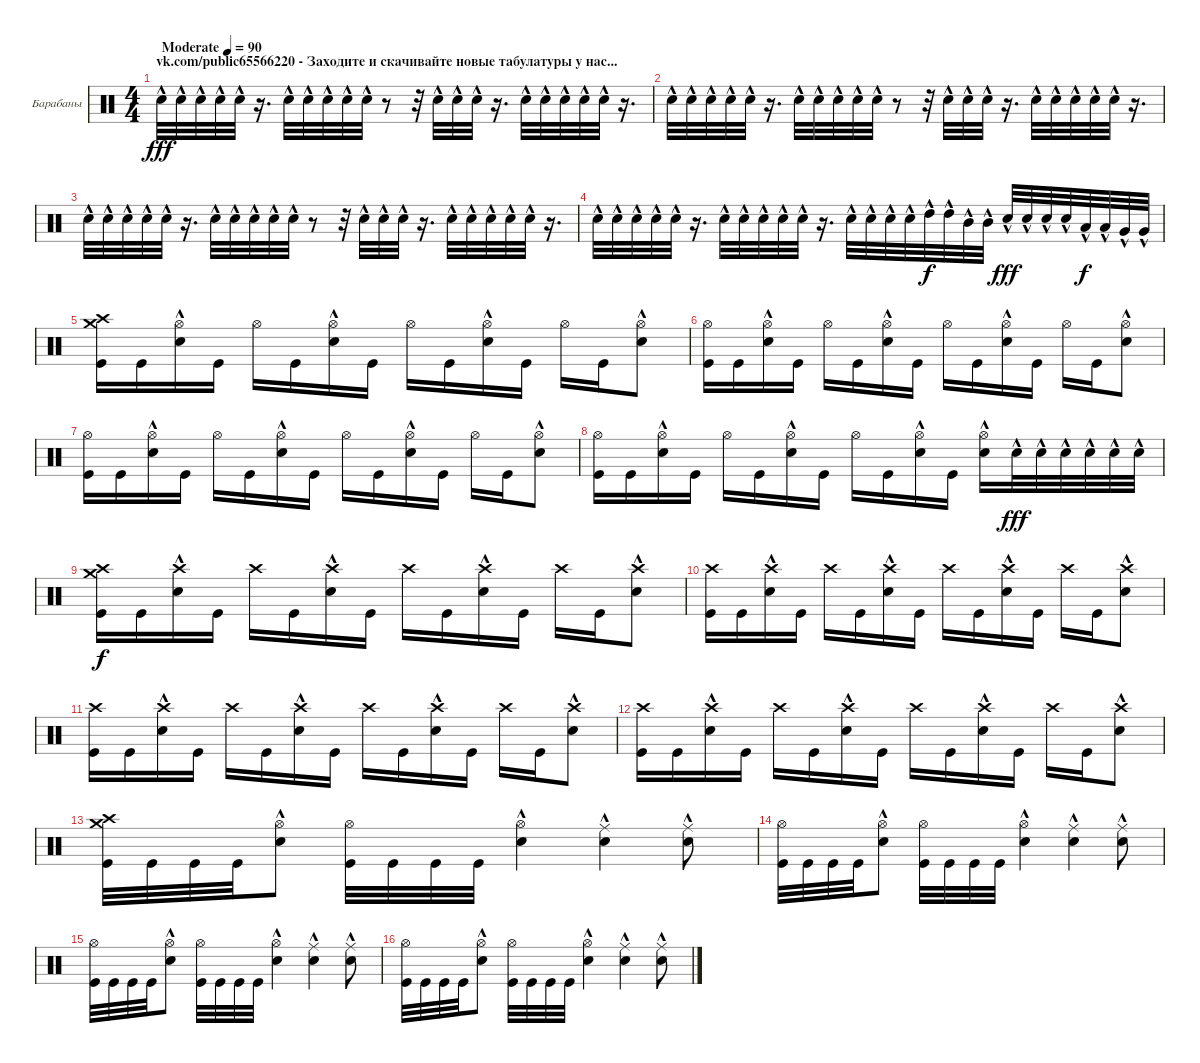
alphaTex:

\bracketExtendMode groupsimilarinstruments
\firstSystemTrackNameOrientation horizontal
\otherSystemsTrackNameOrientation horizontal
\track ("Ударные" "Барабаны") {instrument percussion}
\staff {score}
\articulation defaults
\ts (4 4)
\beaming (8 2 2 2 2)
\section ("" "vk.com/public65566220 - Заходите и скачивайте новые табулатуры у нас...")
\tempo (90 "Moderate")
\clef neutral
\ks c "Snare (hit) 2"{hac}.32{dy fff} "Snare (hit) 2"{hac}.32 "Snare (hit) 2"{hac}.32 "Snare (hit) 2"{hac}.32 "Snare (hit) 2"{hac}.32
r.16{d} "Snare (hit) 2"{hac}.32 "Snare (hit) 2"{hac}.32 "Snare (hit) 2"{hac}.32 "Snare (hit) 2"{hac}.32 "Snare (hit) 2"{hac}.32 r.8 r.32 "Snare (hit) 2"{hac}.32 "Snare (hit) 2"{hac}.32 "Snare (hit) 2"{hac}.32 r.16{d} "Snare (hit) 2"{hac}.32 "Snare (hit) 2"{hac}.32 "Snare (hit) 2"{hac}.32 "Snare (hit) 2"{hac}.32 "Snare (hit) 2"{hac}.32 r.16{d} |
"Snare (hit) 2"{hac}.32 "Snare (hit) 2"{hac}.32 "Snare (hit) 2"{hac}.32 "Snare (hit) 2"{hac}.32 "Snare (hit) 2"{hac}.32 r.16{d} "Snare (hit) 2"{hac}.32 "Snare (hit) 2"{hac}.32 "Snare (hit) 2"{hac}.32 "Snare (hit) 2"{hac}.32 "Snare (hit) 2"{hac}.32 r.8 r.32 "Snare (hit) 2"{hac}.32 "Snare (hit) 2"{hac}.32 "Snare (hit) 2"{hac}.32 r.16{d} "Snare (hit) 2"{hac}.32 "Snare (hit) 2"{hac}.32 "Snare (hit) 2"{hac}.32 "Snare (hit) 2"{hac}.32 "Snare (hit) 2"{hac}.32 r.16{d} |
"Snare (hit) 2"{hac}.32 "Snare (hit) 2"{hac}.32 "Snare (hit) 2"{hac}.32 "Snare (hit) 2"{hac}.32 "Snare (hit) 2"{hac}.32 r.16{d} "Snare (hit) 2"{hac}.32 "Snare (hit) 2"{hac}.32 "Snare (hit) 2"{hac}.32 "Snare (hit) 2"{hac}.32 "Snare (hit) 2"{hac}.32 r.8 r.32 "Snare (hit) 2"{hac}.32 "Snare (hit) 2"{hac}.32 "Snare (hit) 2"{hac}.32 r.16{d} "Snare (hit) 2"{hac}.32 "Snare (hit) 2"{hac}.32 "Snare (hit) 2"{hac}.32 "Snare (hit) 2"{hac}.32 "Snare (hit) 2"{hac}.32 r.16{d} |
"Snare (hit) 2"{hac}.32 "Snare (hit) 2"{hac}.32 "Snare (hit) 2"{hac}.32 "Snare (hit) 2"{hac}.32 "Snare (hit) 2"{hac}.32 r.16{d} "Snare (hit) 2"{hac}.32 "Snare (hit) 2"{hac}.32 "Snare (hit) 2"{hac}.32 "Snare (hit) 2"{hac}.32 "Snare (hit) 2"{hac}.32 r.16{d} "Snare (hit) 2"{hac}.32 "Snare (hit) 2"{hac}.32 "Snare (hit) 2"{hac}.32 "Snare (hit) 2"{hac}.32 "High Tom (hit)"{hac}.32{dy f} "High Tom (hit)"{hac}.32 "Mid Tom (hit)"{hac}.32 "Mid Tom (hit)"{hac}.32 "Snare (hit) 2"{hac}.32{dy fff} "Snare (hit) 2"{hac}.32 "Snare (hit) 2"{hac}.32 "Snare (hit) 2"{hac}.32 "Low Tom (hit)"{hac}.32{dy f} "Low Tom (hit)"{hac}.32 "Very Low Tom (hit)"{hac}.32 "Very Low Tom (hit)"{hac}.32 |
("Crash medium (hit)" "Kick (hit)" "Crash high (hit)").16 "Kick (hit)".16 ("Hi-Hat (open)" "Snare (hit) 2"{hac}).16 "Kick (hit)".16 "Hi-Hat (open)".16 "Kick (hit)".16 ("Hi-Hat (open)" "Snare (hit) 2"{hac}).16 "Kick (hit)".16 "Hi-Hat (open)".16 "Kick (hit)".16 ("Hi-Hat (open)" "Snare (hit) 2"{hac}).16 "Kick (hit)".16 "Hi-Hat (open)".16 "Kick (hit)".16 ("Hi-Hat (open)" "Snare (hit) 2"{hac}).8 |
("Hi-Hat (open)" "Kick (hit)").16 "Kick (hit)".16 ("Hi-Hat (open)" "Snare (hit) 2"{hac}).16 "Kick (hit)".16 "Hi-Hat (open)".16 "Kick (hit)".16 ("Hi-Hat (open)" "Snare (hit) 2"{hac}).16 "Kick (hit)".16 "Hi-Hat (open)".16 "Kick (hit)".16 ("Hi-Hat (open)" "Snare (hit) 2"{hac}).16 "Kick (hit)".16 "Hi-Hat (open)".16 "Kick (hit)".16 ("Hi-Hat (open)" "Snare (hit) 2"{hac}).8 |
("Hi-Hat (open)" "Kick (hit)").16 "Kick (hit)".16 ("Hi-Hat (open)" "Snare (hit) 2"{hac}).16 "Kick (hit)".16 "Hi-Hat (open)".16 "Kick (hit)".16 ("Hi-Hat (open)" "Snare (hit) 2"{hac}).16 "Kick (hit)".16 "Hi-Hat (open)".16 "Kick (hit)".16 ("Hi-Hat (open)" "Snare (hit) 2"{hac}).16 "Kick (hit)".16 "Hi-Hat (open)".16 "Kick (hit)".16 ("Hi-Hat (open)" "Snare (hit) 2"{hac}).8 |
("Hi-Hat (open)" "Kick (hit)").16 "Kick (hit)".16 ("Hi-Hat (open)" "Snare (hit) 2"{hac}).16 "Kick (hit)".16 "Hi-Hat (open)".16 "Kick (hit)".16 ("Hi-Hat (open)" "Snare (hit) 2"{hac}).16 "Kick (hit)".16 "Hi-Hat (open)".16 "Kick (hit)".16 ("Hi-Hat (open)" "Snare (hit) 2"{hac}).16 "Kick (hit)".16 ("Hi-Hat (open)" "Snare (hit) 2"{hac}).16 "Snare (hit) 2"{hac}.32{dy fff} "Snare (hit) 2"{hac}.32 "Snare (hit) 2"{hac}.32 "Snare (hit) 2"{hac}.32 "Snare (hit) 2"{hac}.32 "Snare (hit) 2"{hac}.32 |
("Crash medium (hit)" "Kick (hit)" "Crash high (hit)").16{dy f} "Kick (hit)".16 ("Crash high (hit)" "Snare (hit) 2"{hac}).16 "Kick (hit)".16 "Crash high (hit)".16 "Kick (hit)".16 ("Crash high (hit)" "Snare (hit) 2"{hac}).16 "Kick (hit)".16 "Crash high (hit)".16 "Kick (hit)".16 ("Crash high (hit)" "Snare (hit) 2"{hac}).16 "Kick (hit)".16 "Crash high (hit)".16 "Kick (hit)".16 ("Crash high (hit)" "Snare (hit) 2"{hac}).8 |
("Crash high (hit)" "Kick (hit)").16 "Kick (hit)".16 ("Crash high (hit)" "Snare (hit) 2"{hac}).16 "Kick (hit)".16 "Crash high (hit)".16 "Kick (hit)".16 ("Crash high (hit)" "Snare (hit) 2"{hac}).16 "Kick (hit)".16 "Crash high (hit)".16 "Kick (hit)".16 ("Crash high (hit)" "Snare (hit) 2"{hac}).16 "Kick (hit)".16 "Crash high (hit)".16 "Kick (hit)".16 ("Crash high (hit)" "Snare (hit) 2"{hac}).8 |
("Crash high (hit)" "Kick (hit)").16 "Kick (hit)".16 ("Crash high (hit)" "Snare (hit) 2"{hac}).16 "Kick (hit)".16 "Crash high (hit)".16 "Kick (hit)".16 ("Crash high (hit)" "Snare (hit) 2"{hac}).16 "Kick (hit)".16 "Crash high (hit)".16 "Kick (hit)".16 ("Crash high (hit)" "Snare (hit) 2"{hac}).16 "Kick (hit)".16 "Crash high (hit)".16 "Kick (hit)".16 ("Crash high (hit)" "Snare (hit) 2"{hac}).8 |
("Crash high (hit)" "Kick (hit)").16 "Kick (hit)".16 ("Crash high (hit)" "Snare (hit) 2"{hac}).16 "Kick (hit)".16 "Crash high (hit)".16 "Kick (hit)".16 ("Crash high (hit)" "Snare (hit) 2"{hac}).16 "Kick (hit)".16 "Crash high (hit)".16 "Kick (hit)".16 ("Crash high (hit)" "Snare (hit) 2"{hac}).16 "Kick (hit)".16 "Crash high (hit)".16 "Kick (hit)".16 ("Crash high (hit)" "Snare (hit) 2"{hac}).8 |
("Crash medium (hit)" "Kick (hit)" "Crash high (hit)").32 "Kick (hit)".32 "Kick (hit)".32 "Kick (hit)".32 ("Hi-Hat (open)" "Snare (hit) 2"{hac}).8 ("Hi-Hat (open)" "Kick (hit)").32 "Kick (hit)".32 "Kick (hit)".32 "Kick (hit)".32 ("Hi-Hat (open)" "Snare (hit) 2"{hac}).4 ("Ride (middle)" "Snare (hit) 2"{hac}).4 ("Ride (middle)" "Snare (hit) 2"{hac}).8 |
("Hi-Hat (open)" "Kick (hit)").32 "Kick (hit)".32 "Kick (hit)".32 "Kick (hit)".32 ("Hi-Hat (open)" "Snare (hit) 2"{hac}).8 ("Hi-Hat (open)" "Kick (hit)").32 "Kick (hit)".32 "Kick (hit)".32 "Kick (hit)".32 ("Hi-Hat (open)" "Snare (hit) 2"{hac}).4 ("Ride (middle)" "Snare (hit) 2"{hac}).4 ("Ride (middle)" "Snare (hit) 2"{hac}).8 |
("Hi-Hat (open)" "Kick (hit)").32 "Kick (hit)".32 "Kick (hit)".32 "Kick (hit)".32 ("Hi-Hat (open)" "Snare (hit) 2"{hac}).8 ("Hi-Hat (open)" "Kick (hit)").32 "Kick (hit)".32 "Kick (hit)".32 "Kick (hit)".32 ("Hi-Hat (open)" "Snare (hit) 2"{hac}).4 ("Ride (middle)" "Snare (hit) 2"{hac}).4 ("Ride (middle)" "Snare (hit) 2"{hac}).8 |
("Hi-Hat (open)" "Kick (hit)").32 "Kick (hit)".32 "Kick (hit)".32 "Kick (hit)".32 ("Hi-Hat (open)" "Snare (hit) 2"{hac}).8 ("Hi-Hat (open)" "Kick (hit)").32 "Kick (hit)".32 "Kick (hit)".32 "Kick (hit)".32 ("Hi-Hat (open)" "Snare (hit) 2"{hac}).4 ("Ride (middle)" "Snare (hit) 2"{hac}).4 ("Ride (middle)" "Snare (hit) 2"{hac}).8
